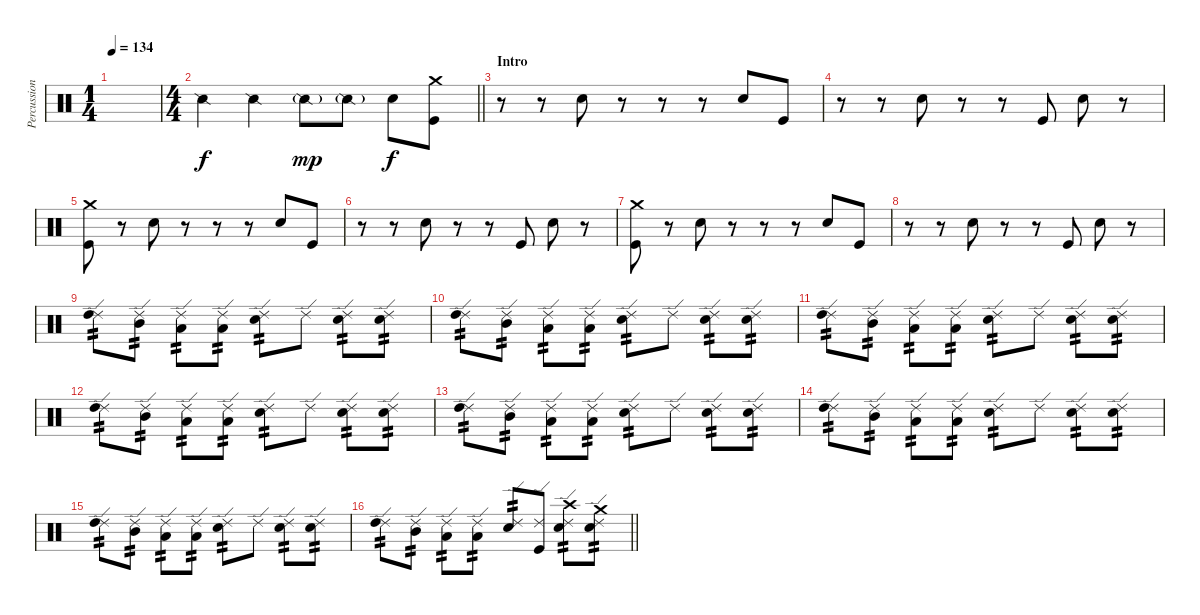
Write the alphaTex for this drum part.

\track ("Percussion" "Percussion") {instrument percussion}
\staff {score}
\articulation defaults
\ts (1 4)
\tempo 134
\clef neutral
\ks c
|
\ts (4 4)
\barLineRight lightlight "Snare (side stick) 2".4 "Snare (side stick) 2".4 "Snare (side stick) 2"{g}.8{dy mp} "Snare (side stick) 2"{g}.8 "Snare (hit) 2".8{dy f}
("Crash medium (hit)" "Kick (hit)").8 |
\section ("" "Intro")
r.8 r.8 "Snare (hit) 2".8 r.8 r.8 r.8 "Snare (hit) 2".8 "Kick (hit)".8 |
r.8 r.8 "Snare (hit) 2".8 r.8 r.8 "Kick (hit)".8 "Snare (hit) 2".8 r.8 |
("Crash medium (hit)" "Kick (hit)").8 r.8 "Snare (hit) 2".8 r.8 r.8 r.8 "Snare (hit) 2".8 "Kick (hit)".8 |
r.8 r.8 "Snare (hit) 2".8 r.8 r.8 "Kick (hit)".8 "Snare (hit) 2".8 r.8 |
("Crash medium (hit)" "Kick (hit)").8 r.8 "Snare (hit) 2".8 r.8 r.8 r.8 "Snare (hit) 2".8 "Kick (hit)".8 |
r.8 r.8 "Snare (hit) 2".8 r.8 r.8 "Kick (hit)".8 "Snare (hit) 2".8 r.8 |
("Ride (edge) 2" "High Tom (hit)").8{tp 2} ("Ride (edge) 2" "Mid Tom (hit)").8{tp 2} ("Ride (edge) 2" "Low Tom (hit)").8{tp 2} ("Ride (edge) 2" "Low Floor Tom (hit)").8{tp 2} ("Ride (edge) 2" "Electric Snare (hit)").8{tp 2} "Ride (edge) 2".8 ("Ride (edge) 2" "Electric Snare (hit)").8{tp 2} ("Ride (edge) 2" "Electric Snare (hit)").8{tp 2} |
("Ride (edge) 2" "High Tom (hit)").8{tp 2} ("Ride (edge) 2" "Mid Tom (hit)").8{tp 2} ("Ride (edge) 2" "Low Tom (hit)").8{tp 2} ("Ride (edge) 2" "Low Floor Tom (hit)").8{tp 2} ("Ride (edge) 2" "Electric Snare (hit)").8{tp 2} "Ride (edge) 2".8 ("Ride (edge) 2" "Electric Snare (hit)").8{tp 2} ("Ride (edge) 2" "Electric Snare (hit)").8{tp 2} |
("Ride (edge) 2" "High Tom (hit)").8{tp 2} ("Ride (edge) 2" "Mid Tom (hit)").8{tp 2} ("Ride (edge) 2" "Low Tom (hit)").8{tp 2} ("Ride (edge) 2" "Low Floor Tom (hit)").8{tp 2} ("Ride (edge) 2" "Electric Snare (hit)").8{tp 2} "Ride (edge) 2".8 ("Ride (edge) 2" "Electric Snare (hit)").8{tp 2} ("Ride (edge) 2" "Electric Snare (hit)").8{tp 2} |
("Ride (edge) 2" "High Tom (hit)").8{tp 2} ("Ride (edge) 2" "Mid Tom (hit)").8{tp 2} ("Ride (edge) 2" "Low Tom (hit)").8{tp 2} ("Ride (edge) 2" "Low Floor Tom (hit)").8{tp 2} ("Ride (edge) 2" "Electric Snare (hit)").8{tp 2} "Ride (edge) 2".8 ("Ride (edge) 2" "Electric Snare (hit)").8{tp 2} ("Ride (edge) 2" "Electric Snare (hit)").8{tp 2} |
("Ride (edge) 2" "High Tom (hit)").8{tp 2} ("Ride (edge) 2" "Mid Tom (hit)").8{tp 2} ("Ride (edge) 2" "Low Tom (hit)").8{tp 2} ("Ride (edge) 2" "Low Floor Tom (hit)").8{tp 2} ("Ride (edge) 2" "Electric Snare (hit)").8{tp 2} "Ride (edge) 2".8 ("Ride (edge) 2" "Electric Snare (hit)").8{tp 2} ("Ride (edge) 2" "Electric Snare (hit)").8{tp 2} |
("Ride (edge) 2" "High Tom (hit)").8{tp 2} ("Ride (edge) 2" "Mid Tom (hit)").8{tp 2} ("Ride (edge) 2" "Low Tom (hit)").8{tp 2} ("Ride (edge) 2" "Low Floor Tom (hit)").8{tp 2} ("Ride (edge) 2" "Electric Snare (hit)").8{tp 2} "Ride (edge) 2".8 ("Ride (edge) 2" "Electric Snare (hit)").8{tp 2} ("Ride (edge) 2" "Electric Snare (hit)").8{tp 2} |
("Ride (edge) 2" "High Tom (hit)").8{tp 2} ("Ride (edge) 2" "Mid Tom (hit)").8{tp 2} ("Ride (edge) 2" "Low Tom (hit)").8{tp 2} ("Ride (edge) 2" "Low Floor Tom (hit)").8{tp 2} ("Ride (edge) 2" "Electric Snare (hit)").8{tp 2} "Ride (edge) 2".8 ("Ride (edge) 2" "Electric Snare (hit)").8{tp 2} ("Ride (edge) 2" "Electric Snare (hit)").8{tp 2} |
\barLineRight lightlight
("Ride (edge) 2" "High Tom (hit)").8{tp 2} ("Ride (edge) 2" "Mid Tom (hit)").8{tp 2} ("Ride (edge) 2" "Low Tom (hit)").8{tp 2} ("Ride (edge) 2" "Low Floor Tom (hit)").8{tp 2} ("Ride (edge) 2" "Electric Snare (hit)").8{tp 2} ("Ride (edge) 2" "Kick (hit)").8 ("Crash high (hit)" "Ride (edge) 2" "Electric Snare (hit)").8{tp 2} ("Crash medium (hit)" "Ride (edge) 2" "Electric Snare (hit)").8{tp 2}
